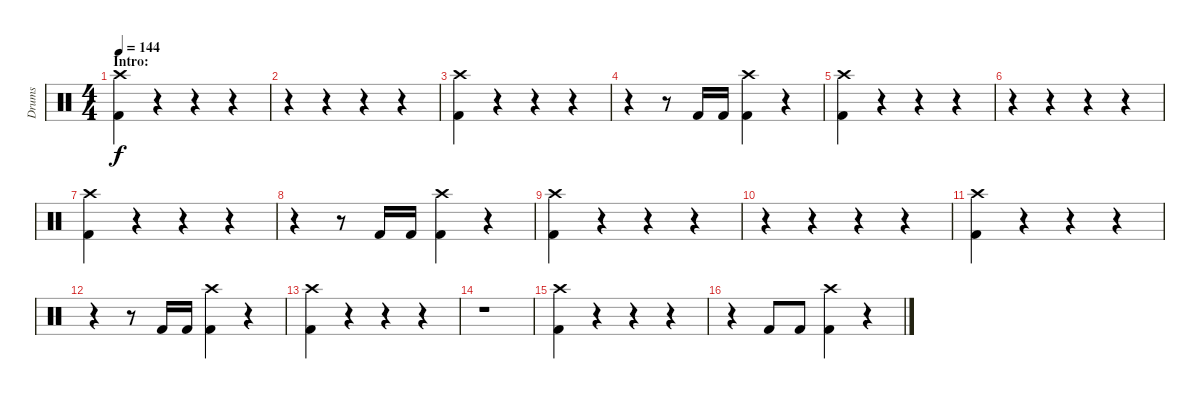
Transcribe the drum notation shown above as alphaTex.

\track ("Drums" "Drums") {instrument percussion}
\staff {score}
\articulation defaults
\ts (4 4)
\section ("" "Intro:")
\tempo 144
\clef neutral
\ks c
("Crash high (hit)" "Kick (hit) 2").4{dy f} r.4 r.4 r.4 |
r.4 r.4 r.4 r.4 |
("Crash high (hit)" "Kick (hit) 2").4 r.4 r.4 r.4 |
r.4 r.8 "Kick (hit) 2".16 "Kick (hit) 2".16 ("Crash high (hit)" "Kick (hit) 2").4 r.4 |
("Crash high (hit)" "Kick (hit) 2").4 r.4 r.4 r.4 |
r.4 r.4 r.4 r.4 |
("Crash high (hit)" "Kick (hit) 2").4 r.4 r.4 r.4 |
r.4 r.8 "Kick (hit) 2".16 "Kick (hit) 2".16 ("Crash high (hit)" "Kick (hit) 2").4 r.4 |
("Crash high (hit)" "Kick (hit) 2").4 r.4 r.4 r.4 |
r.4 r.4 r.4 r.4 |
("Crash high (hit)" "Kick (hit) 2").4 r.4 r.4 r.4 |
r.4 r.8 "Kick (hit) 2".16 "Kick (hit) 2".16 ("Crash high (hit)" "Kick (hit) 2").4 r.4 |
("Crash high (hit)" "Kick (hit) 2").4 r.4 r.4 r.4 |
r.1 |
("Crash high (hit)" "Kick (hit) 2").4 r.4 r.4 r.4 |
r.4 "Kick (hit) 2".8 "Kick (hit) 2".8 ("Crash high (hit)" "Kick (hit) 2").4 r.4
